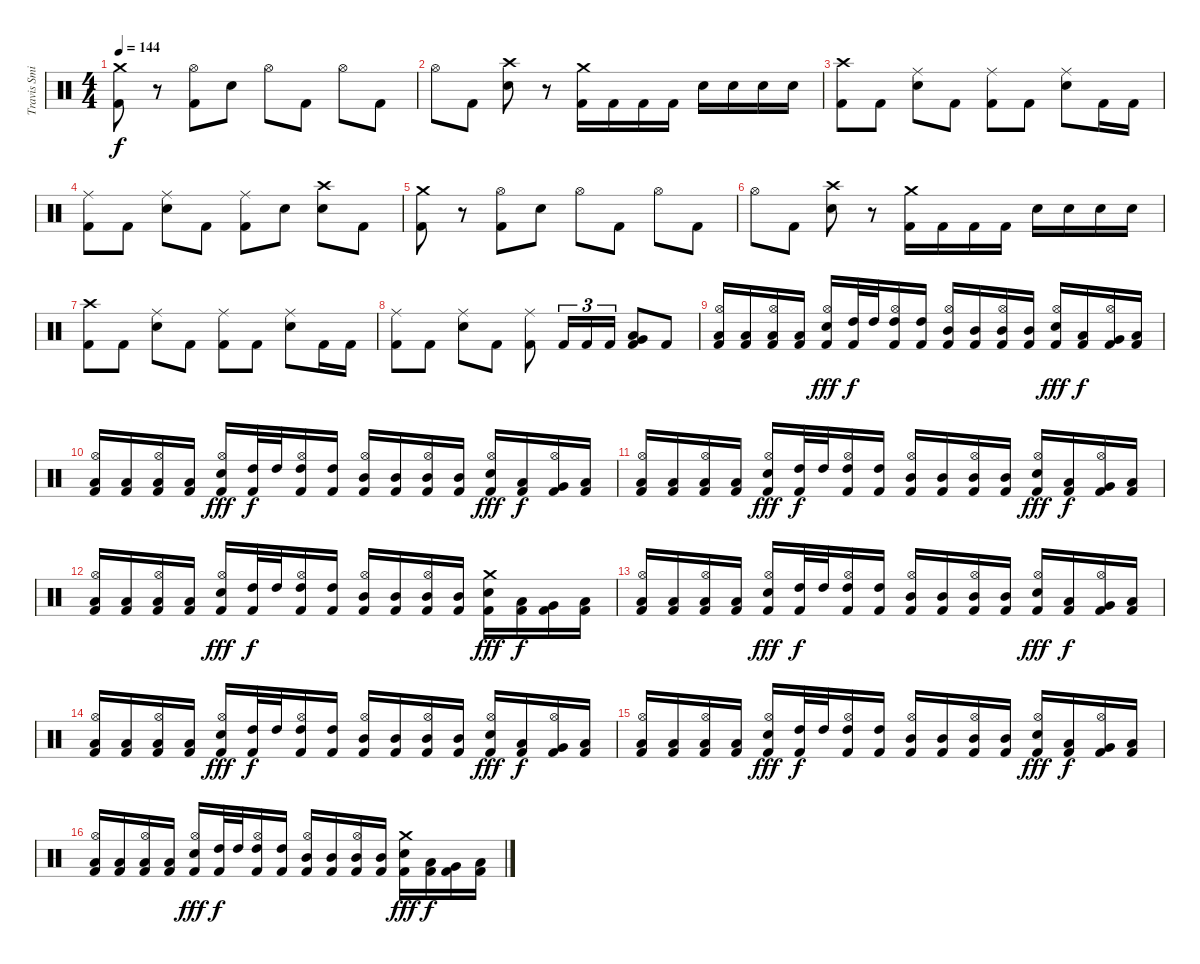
\track ("Travis Smith" "Travis Smi") {instrument percussion}
\staff {score}
\articulation defaults
\ts (4 4)
\tempo 144
\clef neutral
\ks c
("Crash medium (hit)" "Kick (hit) 2").8{dy f} r.8 ("Hi-Hat (open)" "Kick (hit) 2").8 "Electric Snare (hit)".8 "Hi-Hat (open)".8 "Kick (hit) 2".8 "Hi-Hat (open)".8 "Kick (hit) 2".8 |
"Hi-Hat (open)".8 "Kick (hit) 2".8 ("Crash high (hit)" "Electric Snare (hit)").8 r.8 ("Crash medium (hit)" "Kick (hit) 2").16 "Kick (hit) 2".16 "Kick (hit) 2".16 "Kick (hit) 2".16 "Electric Snare (hit)".16 "Electric Snare (hit)".16 "Electric Snare (hit)".16 "Electric Snare (hit)".16 |
("Crash high (hit)" "Kick (hit) 2").8 "Kick (hit) 2".8 ("Ride (middle)" "Electric Snare (hit)").8 "Kick (hit) 2".8 ("Ride (middle)" "Kick (hit) 2").8 "Kick (hit) 2".8 ("Ride (middle)" "Electric Snare (hit)").8 "Kick (hit) 2".16 "Kick (hit) 2".16 |
("Ride (middle)" "Kick (hit) 2").8 "Kick (hit) 2".8 ("Ride (middle)" "Electric Snare (hit)").8 "Kick (hit) 2".8 ("Ride (middle)" "Kick (hit) 2").8 "Electric Snare (hit)".8 ("Crash high (hit)" "Electric Snare (hit)").8 "Kick (hit) 2".8 |
("Crash medium (hit)" "Kick (hit) 2").8 r.8 ("Hi-Hat (open)" "Kick (hit) 2").8 "Electric Snare (hit)".8 "Hi-Hat (open)".8 "Kick (hit) 2".8 "Hi-Hat (open)".8 "Kick (hit) 2".8 |
"Hi-Hat (open)".8 "Kick (hit) 2".8 ("Crash high (hit)" "Electric Snare (hit)").8 r.8 ("Crash medium (hit)" "Kick (hit) 2").16 "Kick (hit) 2".16 "Kick (hit) 2".16 "Kick (hit) 2".16 "Electric Snare (hit)".16 "Electric Snare (hit)".16 "Electric Snare (hit)".16 "Electric Snare (hit)".16 |
("Crash high (hit)" "Kick (hit) 2").8 "Kick (hit) 2".8 ("Ride (middle)" "Electric Snare (hit)").8 "Kick (hit) 2".8 ("Ride (middle)" "Kick (hit) 2").8 "Kick (hit) 2".8 ("Ride (middle)" "Electric Snare (hit)").8 "Kick (hit) 2".16 "Kick (hit) 2".16 |
("Ride (middle)" "Kick (hit) 2").8 "Kick (hit) 2".8 ("Ride (middle)" "Electric Snare (hit)").8 "Kick (hit) 2".8 ("Ride (middle)" "Kick (hit) 2").8 "Kick (hit) 2".16{tu (3 2)} "Kick (hit) 2".16{tu (3 2)} "Kick (hit) 2".16{tu (3 2)} ("Very Low Tom (hit)" "Low Floor Tom (hit)" "Kick (hit) 2").8 "Kick (hit) 2".8 |
("Hi-Hat (open)" "Low Tom (hit)" "Kick (hit) 2").16 ("Low Tom (hit)" "Kick (hit) 2").16 ("Hi-Hat (open)" "Low Tom (hit)" "Kick (hit) 2").16 ("Low Tom (hit)" "Kick (hit) 2").16 ("Hi-Hat (open)" "Electric Snare (hit)" "Kick (hit) 2").16{dy fff} ("High Tom (hit)" "Kick (hit) 2").32{dy f} "High Tom (hit)".32 ("Hi-Hat (open)" "High Tom (hit)" "Kick (hit) 2").16 ("High Tom (hit)" "Kick (hit) 2").16 ("Hi-Hat (open)" "Mid Tom (hit)" "Kick (hit) 2").16 ("Mid Tom (hit)" "Kick (hit) 2").16 ("Hi-Hat (open)" "Mid Tom (hit)" "Kick (hit) 2").16 ("Mid Tom (hit)" "Kick (hit) 2").16 ("Hi-Hat (open)" "Electric Snare (hit)" "Kick (hit) 2").16{dy fff} ("Low Tom (hit)" "Kick (hit) 2").16{dy f} ("Hi-Hat (open)" "Very Low Tom (hit)" "Kick (hit) 2").16 ("Low Floor Tom (hit)" "Kick (hit) 2").16 |
("Hi-Hat (open)" "Low Tom (hit)" "Kick (hit) 2").16 ("Low Tom (hit)" "Kick (hit) 2").16 ("Hi-Hat (open)" "Low Tom (hit)" "Kick (hit) 2").16 ("Low Tom (hit)" "Kick (hit) 2").16 ("Hi-Hat (open)" "Electric Snare (hit)" "Kick (hit) 2").16{dy fff} ("High Tom (hit)" "Kick (hit) 2").32{dy f} "High Tom (hit)".32 ("Hi-Hat (open)" "High Tom (hit)" "Kick (hit) 2").16 ("High Tom (hit)" "Kick (hit) 2").16 ("Hi-Hat (open)" "Mid Tom (hit)" "Kick (hit) 2").16 ("Mid Tom (hit)" "Kick (hit) 2").16 ("Hi-Hat (open)" "Mid Tom (hit)" "Kick (hit) 2").16 ("Mid Tom (hit)" "Kick (hit) 2").16 ("Hi-Hat (open)" "Electric Snare (hit)" "Kick (hit) 2").16{dy fff} ("Low Tom (hit)" "Kick (hit) 2").16{dy f} ("Hi-Hat (open)" "Very Low Tom (hit)" "Kick (hit) 2").16 ("Low Floor Tom (hit)" "Kick (hit) 2").16 |
("Hi-Hat (open)" "Low Tom (hit)" "Kick (hit) 2").16 ("Low Tom (hit)" "Kick (hit) 2").16 ("Hi-Hat (open)" "Low Tom (hit)" "Kick (hit) 2").16 ("Low Tom (hit)" "Kick (hit) 2").16 ("Hi-Hat (open)" "Electric Snare (hit)" "Kick (hit) 2").16{dy fff} ("High Tom (hit)" "Kick (hit) 2").32{dy f} "High Tom (hit)".32 ("Hi-Hat (open)" "High Tom (hit)" "Kick (hit) 2").16 ("High Tom (hit)" "Kick (hit) 2").16 ("Hi-Hat (open)" "Mid Tom (hit)" "Kick (hit) 2").16 ("Mid Tom (hit)" "Kick (hit) 2").16 ("Hi-Hat (open)" "Mid Tom (hit)" "Kick (hit) 2").16 ("Mid Tom (hit)" "Kick (hit) 2").16 ("Hi-Hat (open)" "Electric Snare (hit)" "Kick (hit) 2").16{dy fff} ("Low Tom (hit)" "Kick (hit) 2").16{dy f} ("Hi-Hat (open)" "Very Low Tom (hit)" "Kick (hit) 2").16 ("Low Floor Tom (hit)" "Kick (hit) 2").16 |
("Hi-Hat (open)" "Low Tom (hit)" "Kick (hit) 2").16 ("Low Tom (hit)" "Kick (hit) 2").16 ("Hi-Hat (open)" "Low Tom (hit)" "Kick (hit) 2").16 ("Low Tom (hit)" "Kick (hit) 2").16 ("Hi-Hat (open)" "Electric Snare (hit)" "Kick (hit) 2").16{dy fff} ("High Tom (hit)" "Kick (hit) 2").32{dy f} "High Tom (hit)".32 ("Hi-Hat (open)" "High Tom (hit)" "Kick (hit) 2").16 ("High Tom (hit)" "Kick (hit) 2").16 ("Hi-Hat (open)" "Mid Tom (hit)" "Kick (hit) 2").16 ("Mid Tom (hit)" "Kick (hit) 2").16 ("Hi-Hat (open)" "Mid Tom (hit)" "Kick (hit) 2").16 ("Mid Tom (hit)" "Kick (hit) 2").16 ("Crash medium (hit)" "Electric Snare (hit)" "Kick (hit) 2").16{dy fff} ("Low Tom (hit)" "Kick (hit) 2").16{dy f} ("Very Low Tom (hit)" "Kick (hit) 2").16 ("Low Floor Tom (hit)" "Kick (hit) 2").16 |
("Hi-Hat (open)" "Low Tom (hit)" "Kick (hit) 2").16 ("Low Tom (hit)" "Kick (hit) 2").16 ("Hi-Hat (open)" "Low Tom (hit)" "Kick (hit) 2").16 ("Low Tom (hit)" "Kick (hit) 2").16 ("Hi-Hat (open)" "Electric Snare (hit)" "Kick (hit) 2").16{dy fff} ("High Tom (hit)" "Kick (hit) 2").32{dy f} "High Tom (hit)".32 ("Hi-Hat (open)" "High Tom (hit)" "Kick (hit) 2").16 ("High Tom (hit)" "Kick (hit) 2").16 ("Hi-Hat (open)" "Mid Tom (hit)" "Kick (hit) 2").16 ("Mid Tom (hit)" "Kick (hit) 2").16 ("Hi-Hat (open)" "Mid Tom (hit)" "Kick (hit) 2").16 ("Mid Tom (hit)" "Kick (hit) 2").16 ("Hi-Hat (open)" "Electric Snare (hit)" "Kick (hit) 2").16{dy fff} ("Low Tom (hit)" "Kick (hit) 2").16{dy f} ("Hi-Hat (open)" "Very Low Tom (hit)" "Kick (hit) 2").16 ("Low Floor Tom (hit)" "Kick (hit) 2").16 |
("Hi-Hat (open)" "Low Tom (hit)" "Kick (hit) 2").16 ("Low Tom (hit)" "Kick (hit) 2").16 ("Hi-Hat (open)" "Low Tom (hit)" "Kick (hit) 2").16 ("Low Tom (hit)" "Kick (hit) 2").16 ("Hi-Hat (open)" "Electric Snare (hit)" "Kick (hit) 2").16{dy fff} ("High Tom (hit)" "Kick (hit) 2").32{dy f} "High Tom (hit)".32 ("Hi-Hat (open)" "High Tom (hit)" "Kick (hit) 2").16 ("High Tom (hit)" "Kick (hit) 2").16 ("Hi-Hat (open)" "Mid Tom (hit)" "Kick (hit) 2").16 ("Mid Tom (hit)" "Kick (hit) 2").16 ("Hi-Hat (open)" "Mid Tom (hit)" "Kick (hit) 2").16 ("Mid Tom (hit)" "Kick (hit) 2").16 ("Hi-Hat (open)" "Electric Snare (hit)" "Kick (hit) 2").16{dy fff} ("Low Tom (hit)" "Kick (hit) 2").16{dy f} ("Hi-Hat (open)" "Very Low Tom (hit)" "Kick (hit) 2").16 ("Low Floor Tom (hit)" "Kick (hit) 2").16 |
("Hi-Hat (open)" "Low Tom (hit)" "Kick (hit) 2").16 ("Low Tom (hit)" "Kick (hit) 2").16 ("Hi-Hat (open)" "Low Tom (hit)" "Kick (hit) 2").16 ("Low Tom (hit)" "Kick (hit) 2").16 ("Hi-Hat (open)" "Electric Snare (hit)" "Kick (hit) 2").16{dy fff} ("High Tom (hit)" "Kick (hit) 2").32{dy f} "High Tom (hit)".32 ("Hi-Hat (open)" "High Tom (hit)" "Kick (hit) 2").16 ("High Tom (hit)" "Kick (hit) 2").16 ("Hi-Hat (open)" "Mid Tom (hit)" "Kick (hit) 2").16 ("Mid Tom (hit)" "Kick (hit) 2").16 ("Hi-Hat (open)" "Mid Tom (hit)" "Kick (hit) 2").16 ("Mid Tom (hit)" "Kick (hit) 2").16 ("Hi-Hat (open)" "Electric Snare (hit)" "Kick (hit) 2").16{dy fff} ("Low Tom (hit)" "Kick (hit) 2").16{dy f} ("Hi-Hat (open)" "Very Low Tom (hit)" "Kick (hit) 2").16 ("Low Floor Tom (hit)" "Kick (hit) 2").16 |
("Hi-Hat (open)" "Low Tom (hit)" "Kick (hit) 2").16 ("Low Tom (hit)" "Kick (hit) 2").16 ("Hi-Hat (open)" "Low Tom (hit)" "Kick (hit) 2").16 ("Low Tom (hit)" "Kick (hit) 2").16 ("Hi-Hat (open)" "Electric Snare (hit)" "Kick (hit) 2").16{dy fff} ("High Tom (hit)" "Kick (hit) 2").32{dy f} "High Tom (hit)".32 ("Hi-Hat (open)" "High Tom (hit)" "Kick (hit) 2").16 ("High Tom (hit)" "Kick (hit) 2").16 ("Hi-Hat (open)" "Mid Tom (hit)" "Kick (hit) 2").16 ("Mid Tom (hit)" "Kick (hit) 2").16 ("Hi-Hat (open)" "Mid Tom (hit)" "Kick (hit) 2").16 ("Mid Tom (hit)" "Kick (hit) 2").16 ("Crash medium (hit)" "Electric Snare (hit)" "Kick (hit) 2").16{dy fff} ("Low Tom (hit)" "Kick (hit) 2").16{dy f} ("Very Low Tom (hit)" "Kick (hit) 2").16 ("Low Floor Tom (hit)" "Kick (hit) 2").16
